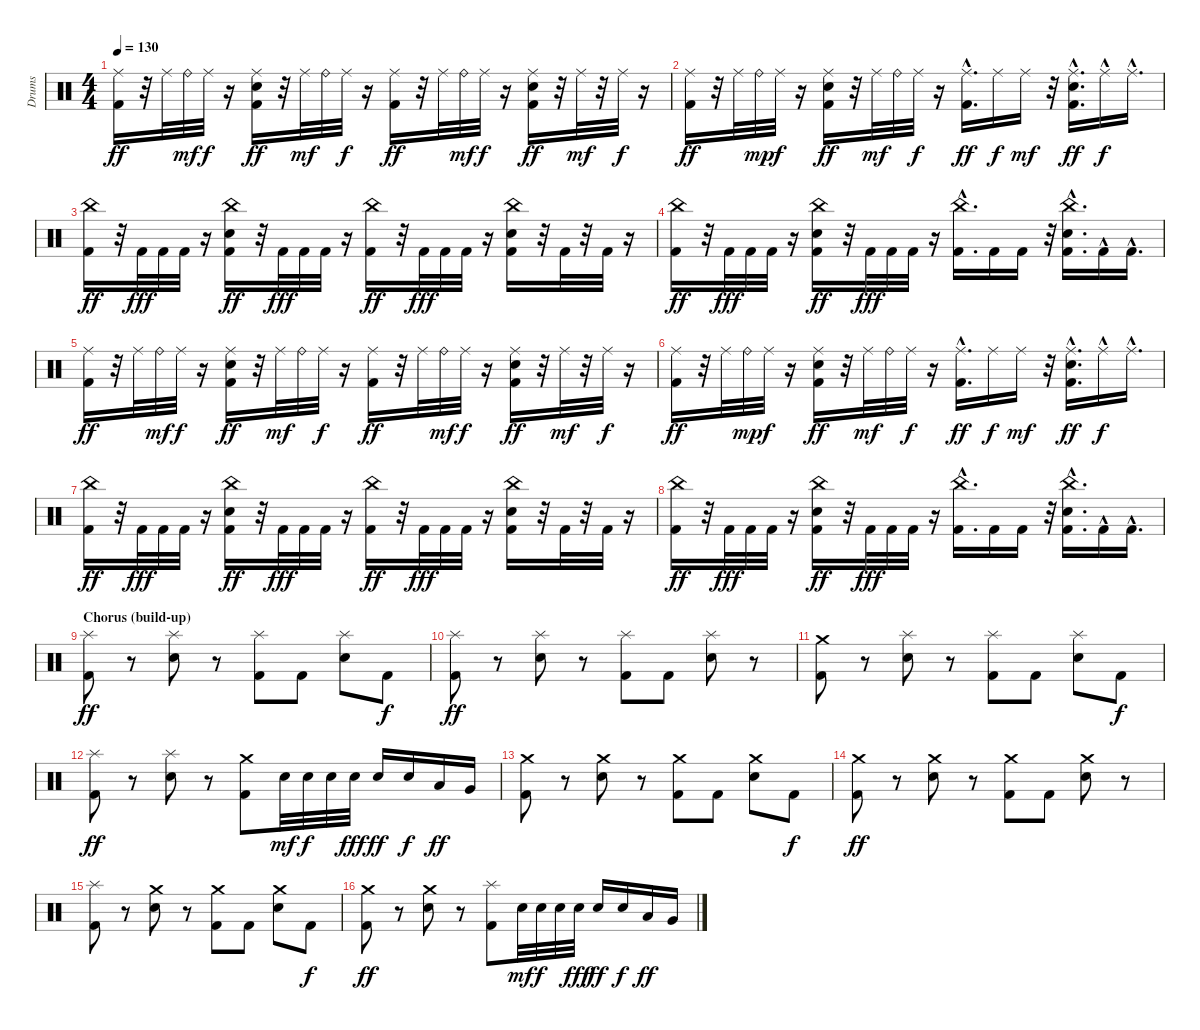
\track ("Drums" "Drums") {instrument percussion}
\staff {score}
\articulation defaults
\ts (4 4)
\tempo 130
\clef neutral
\ks c
("Kick (hit) 2" "Ride (middle)").16{dy ff} r.32 "Ride (middle)".32 "Ride (bell)".32{dy mf} "Ride (middle)".32{dy f} r.16 ("Kick (hit) 2" "Snare (hit) 2" "Ride (middle)").16{dy ff} r.32 "Ride (middle)".32{dy mf} "Ride (bell)".32 "Ride (middle)".32{dy f} r.16 ("Kick (hit) 2" "Ride (middle)").16{dy ff} r.32 "Ride (middle)".32 "Ride (bell)".32{dy mf} "Ride (middle)".32{dy f} r.16 ("Ride (middle)" "Kick (hit) 2" "Snare (hit) 2").16{dy ff} r.32 "Ride (middle)".32{dy mf} r.32 "Ride (middle)".32{dy f} r.16 |
("Kick (hit) 2" "Ride (middle)").16{dy ff} r.32 "Ride (middle)".32 "Ride (bell)".32{dy mp} "Ride (middle)".32{dy f} r.16 ("Kick (hit) 2" "Snare (hit) 2" "Ride (middle)").16{dy ff} r.32 "Ride (middle)".32{dy mf} "Ride (bell)".32 "Ride (middle)".32{dy f} r.16 ("Kick (hit) 2" "Ride (middle)"{hac}).16{d dy ff} "Ride (middle)".16{dy f} "Ride (middle)".16{dy mf} r.32 ("Kick (hit) 2" "Snare (hit) 2" "Ride (middle)"{hac}).16{d dy ff} "Ride (middle)"{hac}.16{dy f} "Ride (middle)"{hac}.16{d} |
("Kick (hit) 2" "China (hit)").16{dy ff} r.32 "Kick (hit) 2".32{dy fff} "Kick (hit) 2".32 "Kick (hit) 2".32 r.16 ("Kick (hit) 2" "Snare (hit) 2" "China (hit)").16{dy ff} r.32 "Kick (hit) 2".32{dy fff} "Kick (hit) 2".32 "Kick (hit) 2".32 r.16 ("Kick (hit) 2" "China (hit)").16{dy ff} r.32 "Kick (hit) 2".32{dy fff} "Kick (hit) 2".32 "Kick (hit) 2".32 r.16 ("Kick (hit) 2" "Snare (hit) 2" "China (hit)").16 r.32 "Kick (hit) 2".32 r.32 "Kick (hit) 2".32 r.16 |
("Kick (hit) 2" "China (hit)").16{dy ff} r.32 "Kick (hit) 2".32{dy fff} "Kick (hit) 2".32 "Kick (hit) 2".32 r.16 ("Kick (hit) 2" "Snare (hit) 2" "China (hit)").16{dy ff} r.32 "Kick (hit) 2".32{dy fff} "Kick (hit) 2".32 "Kick (hit) 2".32 r.16 ("China (hit)" "Kick (hit) 2"{hac}).16{d} "Kick (hit) 2".16 "Kick (hit) 2".16 r.32 ("Snare (hit) 2" "China (hit)" "Kick (hit) 2"{hac}).16{d} "Kick (hit) 2"{hac}.16 "Kick (hit) 2"{hac}.16{d} |
("Kick (hit) 2" "Ride (middle)").16{dy ff} r.32 "Ride (middle)".32 "Ride (bell)".32{dy mf} "Ride (middle)".32{dy f} r.16 ("Kick (hit) 2" "Snare (hit) 2" "Ride (middle)").16{dy ff} r.32 "Ride (middle)".32{dy mf} "Ride (bell)".32 "Ride (middle)".32{dy f} r.16 ("Kick (hit) 2" "Ride (middle)").16{dy ff} r.32 "Ride (middle)".32 "Ride (bell)".32{dy mf} "Ride (middle)".32{dy f} r.16 ("Ride (middle)" "Kick (hit) 2" "Snare (hit) 2").16{dy ff} r.32 "Ride (middle)".32{dy mf} r.32 "Ride (middle)".32{dy f} r.16 |
("Kick (hit) 2" "Ride (middle)").16{dy ff} r.32 "Ride (middle)".32 "Ride (bell)".32{dy mp} "Ride (middle)".32{dy f} r.16 ("Kick (hit) 2" "Snare (hit) 2" "Ride (middle)").16{dy ff} r.32 "Ride (middle)".32{dy mf} "Ride (bell)".32 "Ride (middle)".32{dy f} r.16 ("Kick (hit) 2" "Ride (middle)"{hac}).16{d dy ff} "Ride (middle)".16{dy f} "Ride (middle)".16{dy mf} r.32 ("Kick (hit) 2" "Snare (hit) 2" "Ride (middle)"{hac}).16{d dy ff} "Ride (middle)"{hac}.16{dy f} "Ride (middle)"{hac}.16{d} |
("Kick (hit) 2" "China (hit)").16{dy ff} r.32 "Kick (hit) 2".32{dy fff} "Kick (hit) 2".32 "Kick (hit) 2".32 r.16 ("Kick (hit) 2" "Snare (hit) 2" "China (hit)").16{dy ff} r.32 "Kick (hit) 2".32{dy fff} "Kick (hit) 2".32 "Kick (hit) 2".32 r.16 ("Kick (hit) 2" "China (hit)").16{dy ff} r.32 "Kick (hit) 2".32{dy fff} "Kick (hit) 2".32 "Kick (hit) 2".32 r.16 ("Kick (hit) 2" "Snare (hit) 2" "China (hit)").16 r.32 "Kick (hit) 2".32 r.32 "Kick (hit) 2".32 r.16 |
("Kick (hit) 2" "China (hit)").16{dy ff} r.32 "Kick (hit) 2".32{dy fff} "Kick (hit) 2".32 "Kick (hit) 2".32 r.16 ("Kick (hit) 2" "Snare (hit) 2" "China (hit)").16{dy ff} r.32 "Kick (hit) 2".32{dy fff} "Kick (hit) 2".32 "Kick (hit) 2".32 r.16 ("China (hit)" "Kick (hit) 2"{hac}).16{d} "Kick (hit) 2".16 "Kick (hit) 2".16 r.32 ("Snare (hit) 2" "China (hit)" "Kick (hit) 2"{hac}).16{d} "Kick (hit) 2"{hac}.16 "Kick (hit) 2"{hac}.16{d} |
\section ("" "Chorus (build-up)")
("Kick (hit) 2" "Splash (hit)").8{dy ff} r.8 ("Snare (hit) 2" "Splash (hit)").8 r.8 ("Kick (hit) 2" "Splash (hit)").8 "Kick (hit) 2".8 ("Snare (hit) 2" "Splash (hit)").8 "Kick (hit) 2".8{dy f} |
("Kick (hit) 2" "Splash (hit)").8{dy ff} r.8 ("Snare (hit) 2" "Splash (hit)").8 r.8 ("Kick (hit) 2" "Splash (hit)").8 "Kick (hit) 2".8 ("Snare (hit) 2" "Splash (hit)").8 r.8 |
("Kick (hit) 2" "Crash medium (hit)").8 r.8 ("Snare (hit) 2" "Splash (hit)").8 r.8 ("Kick (hit) 2" "Splash (hit)").8 "Kick (hit) 2".8 ("Snare (hit) 2" "Splash (hit)").8 "Kick (hit) 2".8{dy f} |
("Kick (hit) 2" "Splash (hit)").8{dy ff} r.8 ("Snare (hit) 2" "Splash (hit)").8 r.8 ("Kick (hit) 2" "Crash medium (hit)").8 "Snare (hit) 2".32{dy mf} "Snare (hit) 2".32{dy f} "Snare (hit) 2".32 "Snare (hit) 2".32{dy fff} "Snare (hit) 2".16{dy ff} "Snare (hit) 2".16{dy f} "Low Tom (hit)".16{dy ff} "Very Low Tom (hit)".16 |
("Kick (hit) 2" "Crash medium (hit)").8 r.8 ("Snare (hit) 2" "Crash medium (hit)").8 r.8 ("Kick (hit) 2" "Crash medium (hit)").8 "Kick (hit) 2".8 ("Snare (hit) 2" "Crash medium (hit)").8 "Kick (hit) 2".8{dy f} |
("Kick (hit) 2" "Crash medium (hit)").8{dy ff} r.8 ("Snare (hit) 2" "Crash medium (hit)").8 r.8 ("Kick (hit) 2" "Crash medium (hit)").8 "Kick (hit) 2".8 ("Snare (hit) 2" "Crash medium (hit)").8 r.8 |
("Kick (hit) 2" "Splash (hit)").8 r.8 ("Snare (hit) 2" "Crash medium (hit)").8 r.8 ("Kick (hit) 2" "Crash medium (hit)").8 "Kick (hit) 2".8 ("Snare (hit) 2" "Crash medium (hit)").8 "Kick (hit) 2".8{dy f} |
("Kick (hit) 2" "Crash medium (hit)").8{dy ff} r.8 ("Snare (hit) 2" "Crash medium (hit)").8 r.8 ("Kick (hit) 2" "Splash (hit)").8 "Snare (hit) 2".32{dy mf} "Snare (hit) 2".32{dy f} "Snare (hit) 2".32 "Snare (hit) 2".32{dy fff} "Snare (hit) 2".16{dy ff} "Snare (hit) 2".16{dy f} "Low Tom (hit)".16{dy ff} "Very Low Tom (hit)".16
